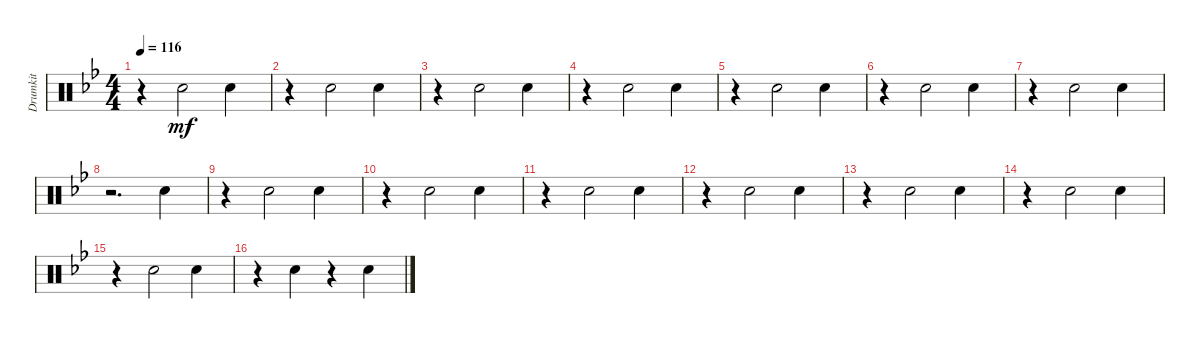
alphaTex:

\track ("Drumkit" "Drumkit") {instrument percussion}
\staff {score}
\articulation defaults
\ts (4 4)
\tempo 116
\clef neutral
\ks bb
r.4{dy mf} "Snare (hit) 2".2 "Snare (hit) 2".4 |
r.4 "Snare (hit) 2".2 "Snare (hit) 2".4 |
r.4 "Snare (hit) 2".2 "Snare (hit) 2".4 |
r.4 "Snare (hit) 2".2 "Snare (hit) 2".4 |
r.4 "Snare (hit) 2".2 "Snare (hit) 2".4 |
r.4 "Snare (hit) 2".2 "Snare (hit) 2".4 |
r.4 "Snare (hit) 2".2 "Snare (hit) 2".4 |
r.2{d} "Snare (hit) 2".4 |
r.4 "Snare (hit) 2".2 "Snare (hit) 2".4 |
r.4 "Snare (hit) 2".2 "Snare (hit) 2".4 |
r.4 "Snare (hit) 2".2 "Snare (hit) 2".4 |
r.4 "Snare (hit) 2".2 "Snare (hit) 2".4 |
r.4 "Snare (hit) 2".2 "Snare (hit) 2".4 |
r.4 "Snare (hit) 2".2 "Snare (hit) 2".4 |
r.4 "Snare (hit) 2".2 "Snare (hit) 2".4 |
r.4 "Snare (hit) 2".4 r.4 "Snare (hit) 2".4
